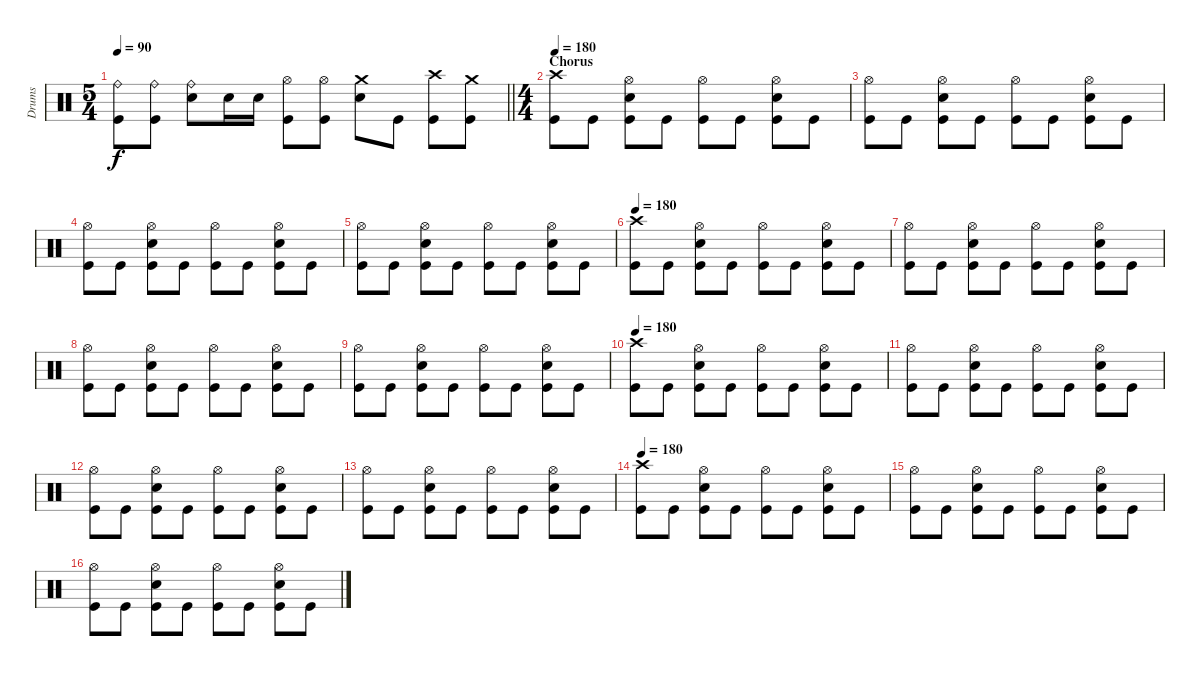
\track ("Drums" "Drums") {instrument percussion}
\staff {score}
\articulation defaults
\ts (5 4)
\tempo 90
\clef neutral
\barLineRight lightlight
\ks c
("Ride (bell)" "Kick (hit)").8{dy f} ("Ride (bell)" "Kick (hit)").8 ("Ride (bell)" "Electric Snare (hit)").8 "Electric Snare (hit)".16 "Electric Snare (hit)".16 ("Hi-Hat (open)" "Kick (hit)").8 ("Hi-Hat (open)" "Kick (hit)").8 ("Crash medium (hit)" "Electric Snare (hit)").8 "Kick (hit)".8 ("Crash high (hit)" "Kick (hit)").8 ("Crash medium (hit)" "Kick (hit)").8 |
\ts (4 4)
\section ("" "Chorus")
\tempo 180
("Crash high (hit)" "Kick (hit)").8 "Kick (hit)".8 ("Hi-Hat (open)" "Electric Snare (hit)" "Kick (hit)").8 "Kick (hit)".8 ("Hi-Hat (open)" "Kick (hit)").8 "Kick (hit)".8 ("Hi-Hat (open)" "Electric Snare (hit)" "Kick (hit)").8 "Kick (hit)".8 |
("Hi-Hat (open)" "Kick (hit)").8 "Kick (hit)".8 ("Hi-Hat (open)" "Electric Snare (hit)" "Kick (hit)").8 "Kick (hit)".8 ("Hi-Hat (open)" "Kick (hit)").8 "Kick (hit)".8 ("Hi-Hat (open)" "Electric Snare (hit)" "Kick (hit)").8 "Kick (hit)".8 |
("Hi-Hat (open)" "Kick (hit)").8 "Kick (hit)".8 ("Hi-Hat (open)" "Electric Snare (hit)" "Kick (hit)").8 "Kick (hit)".8 ("Hi-Hat (open)" "Kick (hit)").8 "Kick (hit)".8 ("Hi-Hat (open)" "Electric Snare (hit)" "Kick (hit)").8 "Kick (hit)".8 |
("Hi-Hat (open)" "Kick (hit)").8 "Kick (hit)".8 ("Hi-Hat (open)" "Electric Snare (hit)" "Kick (hit)").8 "Kick (hit)".8 ("Hi-Hat (open)" "Kick (hit)").8 "Kick (hit)".8 ("Hi-Hat (open)" "Electric Snare (hit)" "Kick (hit)").8 "Kick (hit)".8 |
\tempo 180
("Crash high (hit)" "Kick (hit)").8 "Kick (hit)".8 ("Hi-Hat (open)" "Electric Snare (hit)" "Kick (hit)").8 "Kick (hit)".8 ("Hi-Hat (open)" "Kick (hit)").8 "Kick (hit)".8 ("Hi-Hat (open)" "Electric Snare (hit)" "Kick (hit)").8 "Kick (hit)".8 |
("Hi-Hat (open)" "Kick (hit)").8 "Kick (hit)".8 ("Hi-Hat (open)" "Electric Snare (hit)" "Kick (hit)").8 "Kick (hit)".8 ("Hi-Hat (open)" "Kick (hit)").8 "Kick (hit)".8 ("Hi-Hat (open)" "Electric Snare (hit)" "Kick (hit)").8 "Kick (hit)".8 |
("Hi-Hat (open)" "Kick (hit)").8 "Kick (hit)".8 ("Hi-Hat (open)" "Electric Snare (hit)" "Kick (hit)").8 "Kick (hit)".8 ("Hi-Hat (open)" "Kick (hit)").8 "Kick (hit)".8 ("Hi-Hat (open)" "Electric Snare (hit)" "Kick (hit)").8 "Kick (hit)".8 |
("Hi-Hat (open)" "Kick (hit)").8 "Kick (hit)".8 ("Hi-Hat (open)" "Electric Snare (hit)" "Kick (hit)").8 "Kick (hit)".8 ("Hi-Hat (open)" "Kick (hit)").8 "Kick (hit)".8 ("Hi-Hat (open)" "Electric Snare (hit)" "Kick (hit)").8 "Kick (hit)".8 |
\tempo 180
("Crash high (hit)" "Kick (hit)").8 "Kick (hit)".8 ("Hi-Hat (open)" "Electric Snare (hit)" "Kick (hit)").8 "Kick (hit)".8 ("Hi-Hat (open)" "Kick (hit)").8 "Kick (hit)".8 ("Hi-Hat (open)" "Electric Snare (hit)" "Kick (hit)").8 "Kick (hit)".8 |
("Hi-Hat (open)" "Kick (hit)").8 "Kick (hit)".8 ("Hi-Hat (open)" "Electric Snare (hit)" "Kick (hit)").8 "Kick (hit)".8 ("Hi-Hat (open)" "Kick (hit)").8 "Kick (hit)".8 ("Hi-Hat (open)" "Electric Snare (hit)" "Kick (hit)").8 "Kick (hit)".8 |
("Hi-Hat (open)" "Kick (hit)").8 "Kick (hit)".8 ("Hi-Hat (open)" "Electric Snare (hit)" "Kick (hit)").8 "Kick (hit)".8 ("Hi-Hat (open)" "Kick (hit)").8 "Kick (hit)".8 ("Hi-Hat (open)" "Electric Snare (hit)" "Kick (hit)").8 "Kick (hit)".8 |
("Hi-Hat (open)" "Kick (hit)").8 "Kick (hit)".8 ("Hi-Hat (open)" "Electric Snare (hit)" "Kick (hit)").8 "Kick (hit)".8 ("Hi-Hat (open)" "Kick (hit)").8 "Kick (hit)".8 ("Hi-Hat (open)" "Electric Snare (hit)" "Kick (hit)").8 "Kick (hit)".8 |
\tempo 180
("Crash high (hit)" "Kick (hit)").8 "Kick (hit)".8 ("Hi-Hat (open)" "Electric Snare (hit)" "Kick (hit)").8 "Kick (hit)".8 ("Hi-Hat (open)" "Kick (hit)").8 "Kick (hit)".8 ("Hi-Hat (open)" "Electric Snare (hit)" "Kick (hit)").8 "Kick (hit)".8 |
("Hi-Hat (open)" "Kick (hit)").8 "Kick (hit)".8 ("Hi-Hat (open)" "Electric Snare (hit)" "Kick (hit)").8 "Kick (hit)".8 ("Hi-Hat (open)" "Kick (hit)").8 "Kick (hit)".8 ("Hi-Hat (open)" "Electric Snare (hit)" "Kick (hit)").8 "Kick (hit)".8 |
("Hi-Hat (open)" "Kick (hit)").8 "Kick (hit)".8 ("Hi-Hat (open)" "Electric Snare (hit)" "Kick (hit)").8 "Kick (hit)".8 ("Hi-Hat (open)" "Kick (hit)").8 "Kick (hit)".8 ("Hi-Hat (open)" "Electric Snare (hit)" "Kick (hit)").8 "Kick (hit)".8
